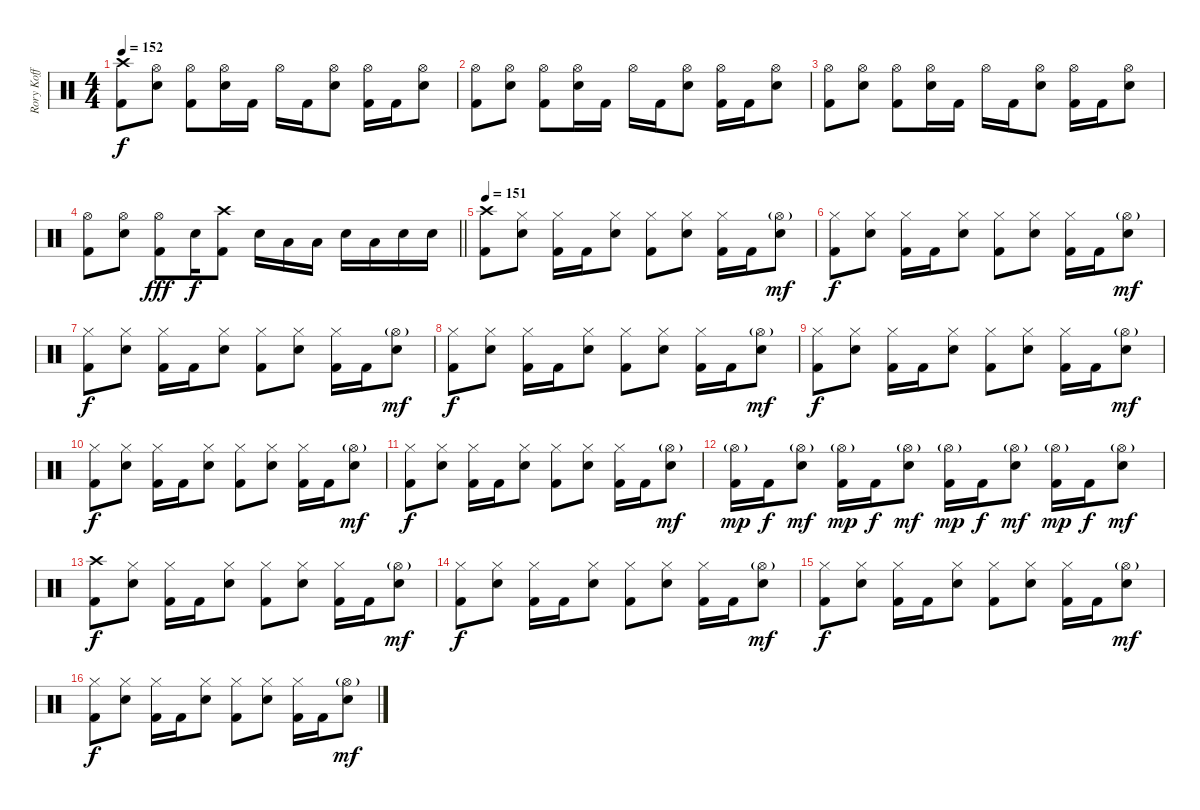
\track ("Rory Koff" "Rory Koff") {instrument percussion}
\staff {score}
\articulation defaults
\ts (4 4)
\tempo 152
\clef neutral
\ks c
("Crash high (hit)" "Kick (hit) 2").8{dy f} ("Hi-Hat (open)" "Electric Snare (hit)").8 ("Hi-Hat (open)" "Kick (hit) 2").8 ("Hi-Hat (open)" "Electric Snare (hit)").16 "Kick (hit) 2".16 "Hi-Hat (open)".16 "Kick (hit) 2".16 ("Hi-Hat (open)" "Electric Snare (hit)").8 ("Hi-Hat (open)" "Kick (hit) 2").16 "Kick (hit) 2".16 ("Hi-Hat (open)" "Electric Snare (hit)").8 |
("Hi-Hat (open)" "Kick (hit) 2").8 ("Hi-Hat (open)" "Electric Snare (hit)").8 ("Hi-Hat (open)" "Kick (hit) 2").8 ("Hi-Hat (open)" "Electric Snare (hit)").16 "Kick (hit) 2".16 "Hi-Hat (open)".16 "Kick (hit) 2".16 ("Hi-Hat (open)" "Electric Snare (hit)").8 ("Hi-Hat (open)" "Kick (hit) 2").16 "Kick (hit) 2".16 ("Hi-Hat (open)" "Electric Snare (hit)").8 |
("Hi-Hat (open)" "Kick (hit) 2").8 ("Hi-Hat (open)" "Electric Snare (hit)").8 ("Hi-Hat (open)" "Kick (hit) 2").8 ("Hi-Hat (open)" "Electric Snare (hit)").16 "Kick (hit) 2".16 "Hi-Hat (open)".16 "Kick (hit) 2".16 ("Hi-Hat (open)" "Electric Snare (hit)").8 ("Hi-Hat (open)" "Kick (hit) 2").16 "Kick (hit) 2".16 ("Hi-Hat (open)" "Electric Snare (hit)").8 |
\barLineRight lightlight
("Hi-Hat (open)" "Kick (hit) 2").8 ("Hi-Hat (open)" "Electric Snare (hit)").8 ("Hi-Hat (open)" "Kick (hit) 2").8{dy fff} "Electric Snare (hit)".16{dy f} ("Crash high (hit)" "Kick (hit) 2").8 "Electric Snare (hit)".16 "Low Tom (hit)".16 "Low Tom (hit)".16 "Electric Snare (hit)".16 "Low Tom (hit)".16 "Electric Snare (hit)".16 "Electric Snare (hit)".16 |
\section ("" "")
\tempo 151
("Crash high (hit)" "Kick (hit) 2").8 ("Hi-Hat (closed)" "Electric Snare (hit)").8 ("Hi-Hat (closed)" "Kick (hit) 2").16 "Kick (hit) 2".16 ("Hi-Hat (closed)" "Electric Snare (hit)").8 ("Hi-Hat (closed)" "Kick (hit) 2").8 ("Hi-Hat (closed)" "Electric Snare (hit)").8 ("Hi-Hat (closed)" "Kick (hit) 2").16 "Kick (hit) 2".16 ("Hi-Hat (open)"{g} "Electric Snare (hit)").8{dy mf} |
("Hi-Hat (closed)" "Kick (hit) 2").8{dy f} ("Hi-Hat (closed)" "Electric Snare (hit)").8 ("Hi-Hat (closed)" "Kick (hit) 2").16 "Kick (hit) 2".16 ("Hi-Hat (closed)" "Electric Snare (hit)").8 ("Hi-Hat (closed)" "Kick (hit) 2").8 ("Hi-Hat (closed)" "Electric Snare (hit)").8 ("Hi-Hat (closed)" "Kick (hit) 2").16 "Kick (hit) 2".16 ("Hi-Hat (open)"{g} "Electric Snare (hit)").8{dy mf} |
("Hi-Hat (closed)" "Kick (hit) 2").8{dy f} ("Hi-Hat (closed)" "Electric Snare (hit)").8 ("Hi-Hat (closed)" "Kick (hit) 2").16 "Kick (hit) 2".16 ("Hi-Hat (closed)" "Electric Snare (hit)").8 ("Hi-Hat (closed)" "Kick (hit) 2").8 ("Hi-Hat (closed)" "Electric Snare (hit)").8 ("Hi-Hat (closed)" "Kick (hit) 2").16 "Kick (hit) 2".16 ("Hi-Hat (open)"{g} "Electric Snare (hit)").8{dy mf} |
("Hi-Hat (closed)" "Kick (hit) 2").8{dy f} ("Hi-Hat (closed)" "Electric Snare (hit)").8 ("Hi-Hat (closed)" "Kick (hit) 2").16 "Kick (hit) 2".16 ("Hi-Hat (closed)" "Electric Snare (hit)").8 ("Hi-Hat (closed)" "Kick (hit) 2").8 ("Hi-Hat (closed)" "Electric Snare (hit)").8 ("Hi-Hat (closed)" "Kick (hit) 2").16 "Kick (hit) 2".16 ("Hi-Hat (open)"{g} "Electric Snare (hit)").8{dy mf} |
("Hi-Hat (closed)" "Kick (hit) 2").8{dy f} ("Hi-Hat (closed)" "Electric Snare (hit)").8 ("Hi-Hat (closed)" "Kick (hit) 2").16 "Kick (hit) 2".16 ("Hi-Hat (closed)" "Electric Snare (hit)").8 ("Hi-Hat (closed)" "Kick (hit) 2").8 ("Hi-Hat (closed)" "Electric Snare (hit)").8 ("Hi-Hat (closed)" "Kick (hit) 2").16 "Kick (hit) 2".16 ("Hi-Hat (open)"{g} "Electric Snare (hit)").8{dy mf} |
("Hi-Hat (closed)" "Kick (hit) 2").8{dy f} ("Hi-Hat (closed)" "Electric Snare (hit)").8 ("Hi-Hat (closed)" "Kick (hit) 2").16 "Kick (hit) 2".16 ("Hi-Hat (closed)" "Electric Snare (hit)").8 ("Hi-Hat (closed)" "Kick (hit) 2").8 ("Hi-Hat (closed)" "Electric Snare (hit)").8 ("Hi-Hat (closed)" "Kick (hit) 2").16 "Kick (hit) 2".16 ("Hi-Hat (open)"{g} "Electric Snare (hit)").8{dy mf} |
("Hi-Hat (closed)" "Kick (hit) 2").8{dy f} ("Hi-Hat (closed)" "Electric Snare (hit)").8 ("Hi-Hat (closed)" "Kick (hit) 2").16 "Kick (hit) 2".16 ("Hi-Hat (closed)" "Electric Snare (hit)").8 ("Hi-Hat (closed)" "Kick (hit) 2").8 ("Hi-Hat (closed)" "Electric Snare (hit)").8 ("Hi-Hat (closed)" "Kick (hit) 2").16 "Kick (hit) 2".16 ("Hi-Hat (open)"{g} "Electric Snare (hit)").8{dy mf} |
("Hi-Hat (open)"{g} "Kick (hit) 2").16{dy mp} "Kick (hit) 2".16{dy f} ("Hi-Hat (open)"{g} "Electric Snare (hit)").8{dy mf} ("Hi-Hat (open)"{g} "Kick (hit) 2").16{dy mp} "Kick (hit) 2".16{dy f} ("Hi-Hat (open)"{g} "Electric Snare (hit)").8{dy mf} ("Hi-Hat (open)"{g} "Kick (hit) 2").16{dy mp} "Kick (hit) 2".16{dy f} ("Hi-Hat (open)"{g} "Electric Snare (hit)").8{dy mf} ("Hi-Hat (open)"{g} "Kick (hit) 2").16{dy mp} "Kick (hit) 2".16{dy f} ("Hi-Hat (open)"{g} "Electric Snare (hit)").8{dy mf} |
("Crash high (hit)" "Kick (hit) 2").8{dy f} ("Hi-Hat (closed)" "Electric Snare (hit)").8 ("Hi-Hat (closed)" "Kick (hit) 2").16 "Kick (hit) 2".16 ("Hi-Hat (closed)" "Electric Snare (hit)").8 ("Hi-Hat (closed)" "Kick (hit) 2").8 ("Hi-Hat (closed)" "Electric Snare (hit)").8 ("Hi-Hat (closed)" "Kick (hit) 2").16 "Kick (hit) 2".16 ("Hi-Hat (open)"{g} "Electric Snare (hit)").8{dy mf} |
("Hi-Hat (closed)" "Kick (hit) 2").8{dy f} ("Hi-Hat (closed)" "Electric Snare (hit)").8 ("Hi-Hat (closed)" "Kick (hit) 2").16 "Kick (hit) 2".16 ("Hi-Hat (closed)" "Electric Snare (hit)").8 ("Hi-Hat (closed)" "Kick (hit) 2").8 ("Hi-Hat (closed)" "Electric Snare (hit)").8 ("Hi-Hat (closed)" "Kick (hit) 2").16 "Kick (hit) 2".16 ("Hi-Hat (open)"{g} "Electric Snare (hit)").8{dy mf} |
("Hi-Hat (closed)" "Kick (hit) 2").8{dy f} ("Hi-Hat (closed)" "Electric Snare (hit)").8 ("Hi-Hat (closed)" "Kick (hit) 2").16 "Kick (hit) 2".16 ("Hi-Hat (closed)" "Electric Snare (hit)").8 ("Hi-Hat (closed)" "Kick (hit) 2").8 ("Hi-Hat (closed)" "Electric Snare (hit)").8 ("Hi-Hat (closed)" "Kick (hit) 2").16 "Kick (hit) 2".16 ("Hi-Hat (open)"{g} "Electric Snare (hit)").8{dy mf} |
("Hi-Hat (closed)" "Kick (hit) 2").8{dy f} ("Hi-Hat (closed)" "Electric Snare (hit)").8 ("Hi-Hat (closed)" "Kick (hit) 2").16 "Kick (hit) 2".16 ("Hi-Hat (closed)" "Electric Snare (hit)").8 ("Hi-Hat (closed)" "Kick (hit) 2").8 ("Hi-Hat (closed)" "Electric Snare (hit)").8 ("Hi-Hat (closed)" "Kick (hit) 2").16 "Kick (hit) 2".16 ("Hi-Hat (open)"{g} "Electric Snare (hit)").8{dy mf}
